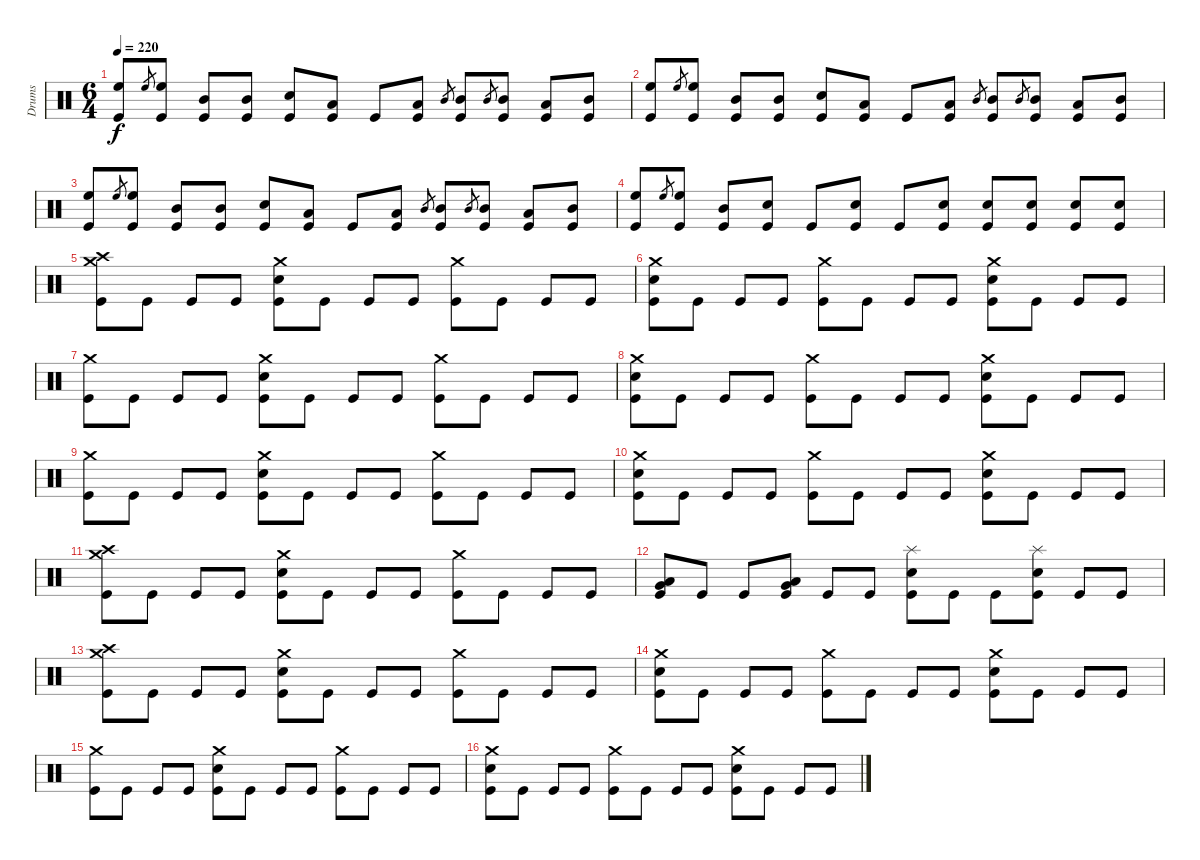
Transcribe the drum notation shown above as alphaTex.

\track ("Drums" "Drums") {instrument percussion}
\staff {score}
\articulation defaults
\ts (6 4)
\tempo 220
\clef neutral
\ks c
("High Floor Tom (hit)" "Kick (hit)").8{dy f} "High Floor Tom (hit)".8{gr} ("High Floor Tom (hit)" "Kick (hit)").8 ("Mid Tom (hit)" "Kick (hit)").8 ("Mid Tom (hit)" "Kick (hit)").8 ("Electric Snare (hit)" "Kick (hit)").8 ("Low Tom (hit)" "Kick (hit)").8 "Kick (hit)".8 ("Low Tom (hit)" "Kick (hit)").8 "Mid Tom (hit)".8{gr} ("Mid Tom (hit)" "Kick (hit)").8 "Mid Tom (hit)".8{gr} ("Mid Tom (hit)" "Kick (hit)").8 ("Low Tom (hit)" "Kick (hit)").8 ("Mid Tom (hit)" "Kick (hit)").8 |
("High Floor Tom (hit)" "Kick (hit)").8 "High Floor Tom (hit)".8{gr} ("High Floor Tom (hit)" "Kick (hit)").8 ("Mid Tom (hit)" "Kick (hit)").8 ("Mid Tom (hit)" "Kick (hit)").8 ("Electric Snare (hit)" "Kick (hit)").8 ("Low Tom (hit)" "Kick (hit)").8 "Kick (hit)".8 ("Low Tom (hit)" "Kick (hit)").8 "Mid Tom (hit)".8{gr} ("Mid Tom (hit)" "Kick (hit)").8 "Mid Tom (hit)".8{gr} ("Mid Tom (hit)" "Kick (hit)").8 ("Low Tom (hit)" "Kick (hit)").8 ("Mid Tom (hit)" "Kick (hit)").8 |
("High Floor Tom (hit)" "Kick (hit)").8 "High Floor Tom (hit)".8{gr} ("High Floor Tom (hit)" "Kick (hit)").8 ("Mid Tom (hit)" "Kick (hit)").8 ("Mid Tom (hit)" "Kick (hit)").8 ("Electric Snare (hit)" "Kick (hit)").8 ("Low Tom (hit)" "Kick (hit)").8 "Kick (hit)".8 ("Low Tom (hit)" "Kick (hit)").8 "Mid Tom (hit)".8{gr} ("Mid Tom (hit)" "Kick (hit)").8 "Mid Tom (hit)".8{gr} ("Mid Tom (hit)" "Kick (hit)").8 ("Low Tom (hit)" "Kick (hit)").8 ("Mid Tom (hit)" "Kick (hit)").8 |
("High Floor Tom (hit)" "Kick (hit)").8 "High Floor Tom (hit)".8{gr} ("High Floor Tom (hit)" "Kick (hit)").8 ("Mid Tom (hit)" "Kick (hit)").8 ("Electric Snare (hit)" "Kick (hit)").8 "Kick (hit)".8 ("Electric Snare (hit)" "Kick (hit)").8 "Kick (hit)".8 ("Electric Snare (hit)" "Kick (hit)").8 ("Electric Snare (hit)" "Kick (hit)").8 ("Electric Snare (hit)" "Kick (hit)").8 ("Electric Snare (hit)" "Kick (hit)").8 ("Electric Snare (hit)" "Kick (hit)").8 |
("Crash high (hit)" "Crash medium (hit)" "Kick (hit)").8 "Kick (hit)".8 "Kick (hit)".8 "Kick (hit)".8 ("Crash medium (hit)" "Electric Snare (hit)" "Kick (hit)").8 "Kick (hit)".8 "Kick (hit)".8 "Kick (hit)".8 ("Crash medium (hit)" "Kick (hit)").8 "Kick (hit)".8 "Kick (hit)".8 "Kick (hit)".8 |
("Crash medium (hit)" "Electric Snare (hit)" "Kick (hit)").8 "Kick (hit)".8 "Kick (hit)".8 "Kick (hit)".8 ("Crash medium (hit)" "Kick (hit)").8 "Kick (hit)".8 "Kick (hit)".8 "Kick (hit)".8 ("Crash medium (hit)" "Electric Snare (hit)" "Kick (hit)").8 "Kick (hit)".8 "Kick (hit)".8 "Kick (hit)".8 |
("Crash medium (hit)" "Kick (hit)").8 "Kick (hit)".8 "Kick (hit)".8 "Kick (hit)".8 ("Crash medium (hit)" "Electric Snare (hit)" "Kick (hit)").8 "Kick (hit)".8 "Kick (hit)".8 "Kick (hit)".8 ("Crash medium (hit)" "Kick (hit)").8 "Kick (hit)".8 "Kick (hit)".8 "Kick (hit)".8 |
("Crash medium (hit)" "Electric Snare (hit)" "Kick (hit)").8 "Kick (hit)".8 "Kick (hit)".8 "Kick (hit)".8 ("Crash medium (hit)" "Kick (hit)").8 "Kick (hit)".8 "Kick (hit)".8 "Kick (hit)".8 ("Crash medium (hit)" "Electric Snare (hit)" "Kick (hit)").8 "Kick (hit)".8 "Kick (hit)".8 "Kick (hit)".8 |
("Crash medium (hit)" "Kick (hit)").8 "Kick (hit)".8 "Kick (hit)".8 "Kick (hit)".8 ("Crash medium (hit)" "Electric Snare (hit)" "Kick (hit)").8 "Kick (hit)".8 "Kick (hit)".8 "Kick (hit)".8 ("Crash medium (hit)" "Kick (hit)").8 "Kick (hit)".8 "Kick (hit)".8 "Kick (hit)".8 |
("Crash medium (hit)" "Electric Snare (hit)" "Kick (hit)").8 "Kick (hit)".8 "Kick (hit)".8 "Kick (hit)".8 ("Crash medium (hit)" "Kick (hit)").8 "Kick (hit)".8 "Kick (hit)".8 "Kick (hit)".8 ("Crash medium (hit)" "Electric Snare (hit)" "Kick (hit)").8 "Kick (hit)".8 "Kick (hit)".8 "Kick (hit)".8 |
("Crash high (hit)" "Crash medium (hit)" "Kick (hit)").8 "Kick (hit)".8 "Kick (hit)".8 "Kick (hit)".8 ("Crash medium (hit)" "Electric Snare (hit)" "Kick (hit)").8 "Kick (hit)".8 "Kick (hit)".8 "Kick (hit)".8 ("Crash medium (hit)" "Kick (hit)").8 "Kick (hit)".8 "Kick (hit)".8 "Kick (hit)".8 |
("Low Floor Tom (hit)" "Very Low Tom (hit)" "Kick (hit)").8 "Kick (hit)".8 "Kick (hit)".8 ("Low Floor Tom (hit)" "Very Low Tom (hit)" "Kick (hit)").8 "Kick (hit)".8 "Kick (hit)".8 ("Splash (hit)" "Electric Snare (hit)" "Kick (hit)").8 "Kick (hit)".8 "Kick (hit)".8 ("Splash (hit)" "Electric Snare (hit)" "Kick (hit)").8 "Kick (hit)".8 "Kick (hit)".8 |
("Crash high (hit)" "Crash medium (hit)" "Kick (hit)").8 "Kick (hit)".8 "Kick (hit)".8 "Kick (hit)".8 ("Crash medium (hit)" "Electric Snare (hit)" "Kick (hit)").8 "Kick (hit)".8 "Kick (hit)".8 "Kick (hit)".8 ("Crash medium (hit)" "Kick (hit)").8 "Kick (hit)".8 "Kick (hit)".8 "Kick (hit)".8 |
("Crash medium (hit)" "Electric Snare (hit)" "Kick (hit)").8 "Kick (hit)".8 "Kick (hit)".8 "Kick (hit)".8 ("Crash medium (hit)" "Kick (hit)").8 "Kick (hit)".8 "Kick (hit)".8 "Kick (hit)".8 ("Crash medium (hit)" "Electric Snare (hit)" "Kick (hit)").8 "Kick (hit)".8 "Kick (hit)".8 "Kick (hit)".8 |
("Crash medium (hit)" "Kick (hit)").8 "Kick (hit)".8 "Kick (hit)".8 "Kick (hit)".8 ("Crash medium (hit)" "Electric Snare (hit)" "Kick (hit)").8 "Kick (hit)".8 "Kick (hit)".8 "Kick (hit)".8 ("Crash medium (hit)" "Kick (hit)").8 "Kick (hit)".8 "Kick (hit)".8 "Kick (hit)".8 |
("Crash medium (hit)" "Electric Snare (hit)" "Kick (hit)").8 "Kick (hit)".8 "Kick (hit)".8 "Kick (hit)".8 ("Crash medium (hit)" "Kick (hit)").8 "Kick (hit)".8 "Kick (hit)".8 "Kick (hit)".8 ("Crash medium (hit)" "Electric Snare (hit)" "Kick (hit)").8 "Kick (hit)".8 "Kick (hit)".8 "Kick (hit)".8
